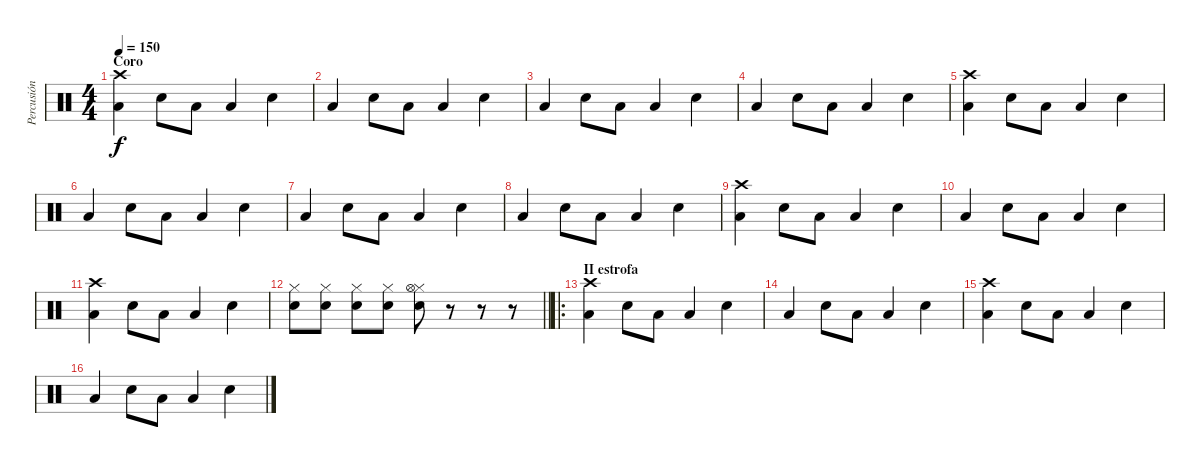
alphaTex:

\track ("Percusión" "Percusión") {instrument percussion}
\staff {score}
\articulation defaults
\ts (4 4)
\section ("" "Coro")
\tempo 150
\clef neutral
\ks c
("Low Floor Tom (hit)" "Crash high (hit)").4{dy f} "Electric Snare (hit)".8 "Low Floor Tom (hit)".8 "Low Floor Tom (hit)".4 "Electric Snare (hit)".4 |
"Low Floor Tom (hit)".4 "Electric Snare (hit)".8 "Low Floor Tom (hit)".8 "Low Floor Tom (hit)".4 "Electric Snare (hit)".4 |
"Low Floor Tom (hit)".4 "Electric Snare (hit)".8 "Low Floor Tom (hit)".8 "Low Floor Tom (hit)".4 "Electric Snare (hit)".4 |
"Low Floor Tom (hit)".4 "Electric Snare (hit)".8 "Low Floor Tom (hit)".8 "Low Floor Tom (hit)".4 "Electric Snare (hit)".4 |
("Low Floor Tom (hit)" "Crash high (hit)").4 "Electric Snare (hit)".8 "Low Floor Tom (hit)".8 "Low Floor Tom (hit)".4 "Electric Snare (hit)".4 |
"Low Floor Tom (hit)".4 "Electric Snare (hit)".8 "Low Floor Tom (hit)".8 "Low Floor Tom (hit)".4 "Electric Snare (hit)".4 |
"Low Floor Tom (hit)".4 "Electric Snare (hit)".8 "Low Floor Tom (hit)".8 "Low Floor Tom (hit)".4 "Electric Snare (hit)".4 |
"Low Floor Tom (hit)".4 "Electric Snare (hit)".8 "Low Floor Tom (hit)".8 "Low Floor Tom (hit)".4 "Electric Snare (hit)".4 |
("Low Floor Tom (hit)" "Crash high (hit)").4 "Electric Snare (hit)".8 "Low Floor Tom (hit)".8 "Low Floor Tom (hit)".4 "Electric Snare (hit)".4 |
"Low Floor Tom (hit)".4 "Electric Snare (hit)".8 "Low Floor Tom (hit)".8 "Low Floor Tom (hit)".4 "Electric Snare (hit)".4 |
("Low Floor Tom (hit)" "Crash high (hit)").4 "Electric Snare (hit)".8 "Low Floor Tom (hit)".8 "Low Floor Tom (hit)".4 "Electric Snare (hit)".4 |
\barLineRight lightlight
("Electric Snare (hit)" "Hi-Hat (closed)").8 ("Electric Snare (hit)" "Hi-Hat (closed)").8 ("Electric Snare (hit)" "Hi-Hat (closed)").8 ("Electric Snare (hit)" "Hi-Hat (closed)").8 ("Electric Snare (hit)" "Hi-Hat (closed)" "Hi-Hat (open)").8 r.8 r.8 r.8 |
\ro
\section ("" "II estrofa")
("Low Floor Tom (hit)" "Crash high (hit)").4 "Electric Snare (hit)".8 "Low Floor Tom (hit)".8 "Low Floor Tom (hit)".4 "Electric Snare (hit)".4 |
"Low Floor Tom (hit)".4 "Electric Snare (hit)".8 "Low Floor Tom (hit)".8 "Low Floor Tom (hit)".4 "Electric Snare (hit)".4 |
("Low Floor Tom (hit)" "Crash high (hit)").4 "Electric Snare (hit)".8 "Low Floor Tom (hit)".8 "Low Floor Tom (hit)".4 "Electric Snare (hit)".4 |
"Low Floor Tom (hit)".4 "Electric Snare (hit)".8 "Low Floor Tom (hit)".8 "Low Floor Tom (hit)".4 "Electric Snare (hit)".4
